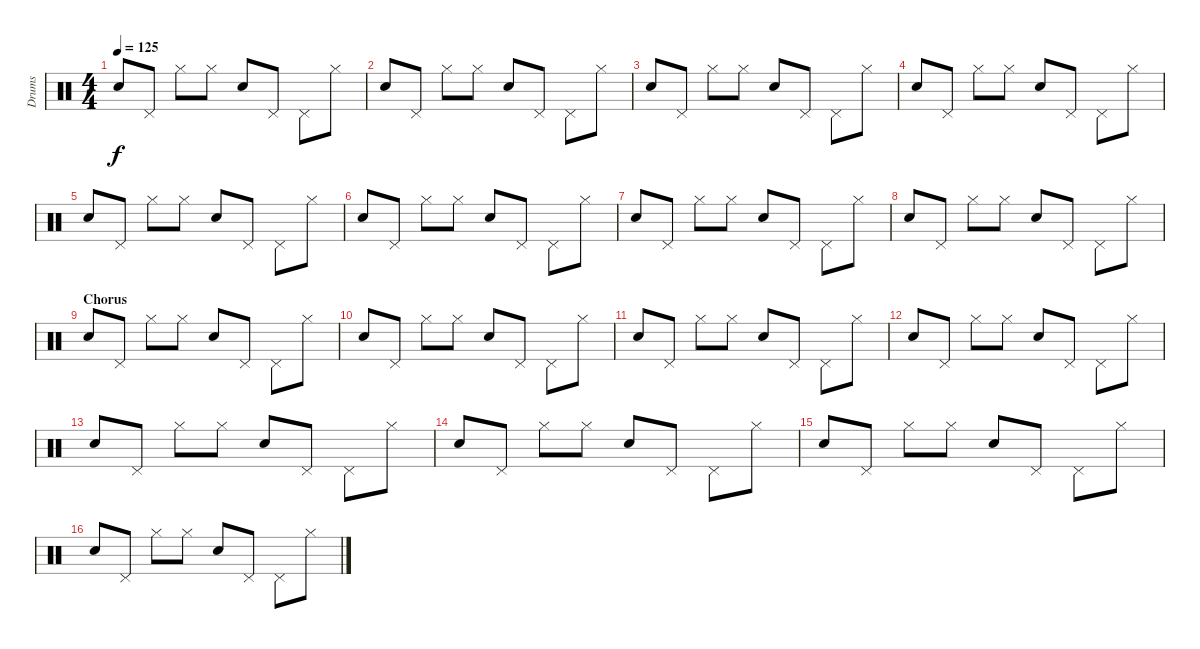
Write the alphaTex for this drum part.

\track ("Drums" "Drums") {instrument percussion}
\staff {score}
\articulation defaults
\ts (4 4)
\tempo 125
\clef neutral
\ks c "Electric Snare (hit)".8{dy f} "Pedal Hi-Hat (hit)".8 "Hi-Hat (closed)".8 "Hi-Hat (closed)".8 "Electric Snare (hit)".8 "Pedal Hi-Hat (hit)".8 "Pedal Hi-Hat (hit)".8 "Hi-Hat (closed)".8
|
"Electric Snare (hit)".8 "Pedal Hi-Hat (hit)".8 "Hi-Hat (closed)".8 "Hi-Hat (closed)".8 "Electric Snare (hit)".8 "Pedal Hi-Hat (hit)".8 "Pedal Hi-Hat (hit)".8 "Hi-Hat (closed)".8 |
"Electric Snare (hit)".8 "Pedal Hi-Hat (hit)".8 "Hi-Hat (closed)".8 "Hi-Hat (closed)".8 "Electric Snare (hit)".8 "Pedal Hi-Hat (hit)".8 "Pedal Hi-Hat (hit)".8 "Hi-Hat (closed)".8 |
"Electric Snare (hit)".8 "Pedal Hi-Hat (hit)".8 "Hi-Hat (closed)".8 "Hi-Hat (closed)".8 "Electric Snare (hit)".8 "Pedal Hi-Hat (hit)".8 "Pedal Hi-Hat (hit)".8 "Hi-Hat (closed)".8 |
"Electric Snare (hit)".8 "Pedal Hi-Hat (hit)".8 "Hi-Hat (closed)".8 "Hi-Hat (closed)".8 "Electric Snare (hit)".8 "Pedal Hi-Hat (hit)".8 "Pedal Hi-Hat (hit)".8 "Hi-Hat (closed)".8 |
"Electric Snare (hit)".8 "Pedal Hi-Hat (hit)".8 "Hi-Hat (closed)".8 "Hi-Hat (closed)".8 "Electric Snare (hit)".8 "Pedal Hi-Hat (hit)".8 "Pedal Hi-Hat (hit)".8 "Hi-Hat (closed)".8 |
"Electric Snare (hit)".8 "Pedal Hi-Hat (hit)".8 "Hi-Hat (closed)".8 "Hi-Hat (closed)".8 "Electric Snare (hit)".8 "Pedal Hi-Hat (hit)".8 "Pedal Hi-Hat (hit)".8 "Hi-Hat (closed)".8 |
"Electric Snare (hit)".8 "Pedal Hi-Hat (hit)".8 "Hi-Hat (closed)".8 "Hi-Hat (closed)".8 "Electric Snare (hit)".8 "Pedal Hi-Hat (hit)".8 "Pedal Hi-Hat (hit)".8 "Hi-Hat (closed)".8 |
\section ("" "Chorus")
"Electric Snare (hit)".8 "Pedal Hi-Hat (hit)".8 "Hi-Hat (closed)".8 "Hi-Hat (closed)".8 "Electric Snare (hit)".8 "Pedal Hi-Hat (hit)".8 "Pedal Hi-Hat (hit)".8 "Hi-Hat (closed)".8 |
"Electric Snare (hit)".8 "Pedal Hi-Hat (hit)".8 "Hi-Hat (closed)".8 "Hi-Hat (closed)".8 "Electric Snare (hit)".8 "Pedal Hi-Hat (hit)".8 "Pedal Hi-Hat (hit)".8 "Hi-Hat (closed)".8 |
"Electric Snare (hit)".8 "Pedal Hi-Hat (hit)".8 "Hi-Hat (closed)".8 "Hi-Hat (closed)".8 "Electric Snare (hit)".8 "Pedal Hi-Hat (hit)".8 "Pedal Hi-Hat (hit)".8 "Hi-Hat (closed)".8 |
"Electric Snare (hit)".8 "Pedal Hi-Hat (hit)".8 "Hi-Hat (closed)".8 "Hi-Hat (closed)".8 "Electric Snare (hit)".8 "Pedal Hi-Hat (hit)".8 "Pedal Hi-Hat (hit)".8 "Hi-Hat (closed)".8 |
"Electric Snare (hit)".8 "Pedal Hi-Hat (hit)".8 "Hi-Hat (closed)".8 "Hi-Hat (closed)".8 "Electric Snare (hit)".8 "Pedal Hi-Hat (hit)".8 "Pedal Hi-Hat (hit)".8 "Hi-Hat (closed)".8 |
"Electric Snare (hit)".8 "Pedal Hi-Hat (hit)".8 "Hi-Hat (closed)".8 "Hi-Hat (closed)".8 "Electric Snare (hit)".8 "Pedal Hi-Hat (hit)".8 "Pedal Hi-Hat (hit)".8 "Hi-Hat (closed)".8 |
"Electric Snare (hit)".8 "Pedal Hi-Hat (hit)".8 "Hi-Hat (closed)".8 "Hi-Hat (closed)".8 "Electric Snare (hit)".8 "Pedal Hi-Hat (hit)".8 "Pedal Hi-Hat (hit)".8 "Hi-Hat (closed)".8 |
"Electric Snare (hit)".8 "Pedal Hi-Hat (hit)".8 "Hi-Hat (closed)".8 "Hi-Hat (closed)".8 "Electric Snare (hit)".8 "Pedal Hi-Hat (hit)".8 "Pedal Hi-Hat (hit)".8 "Hi-Hat (closed)".8
